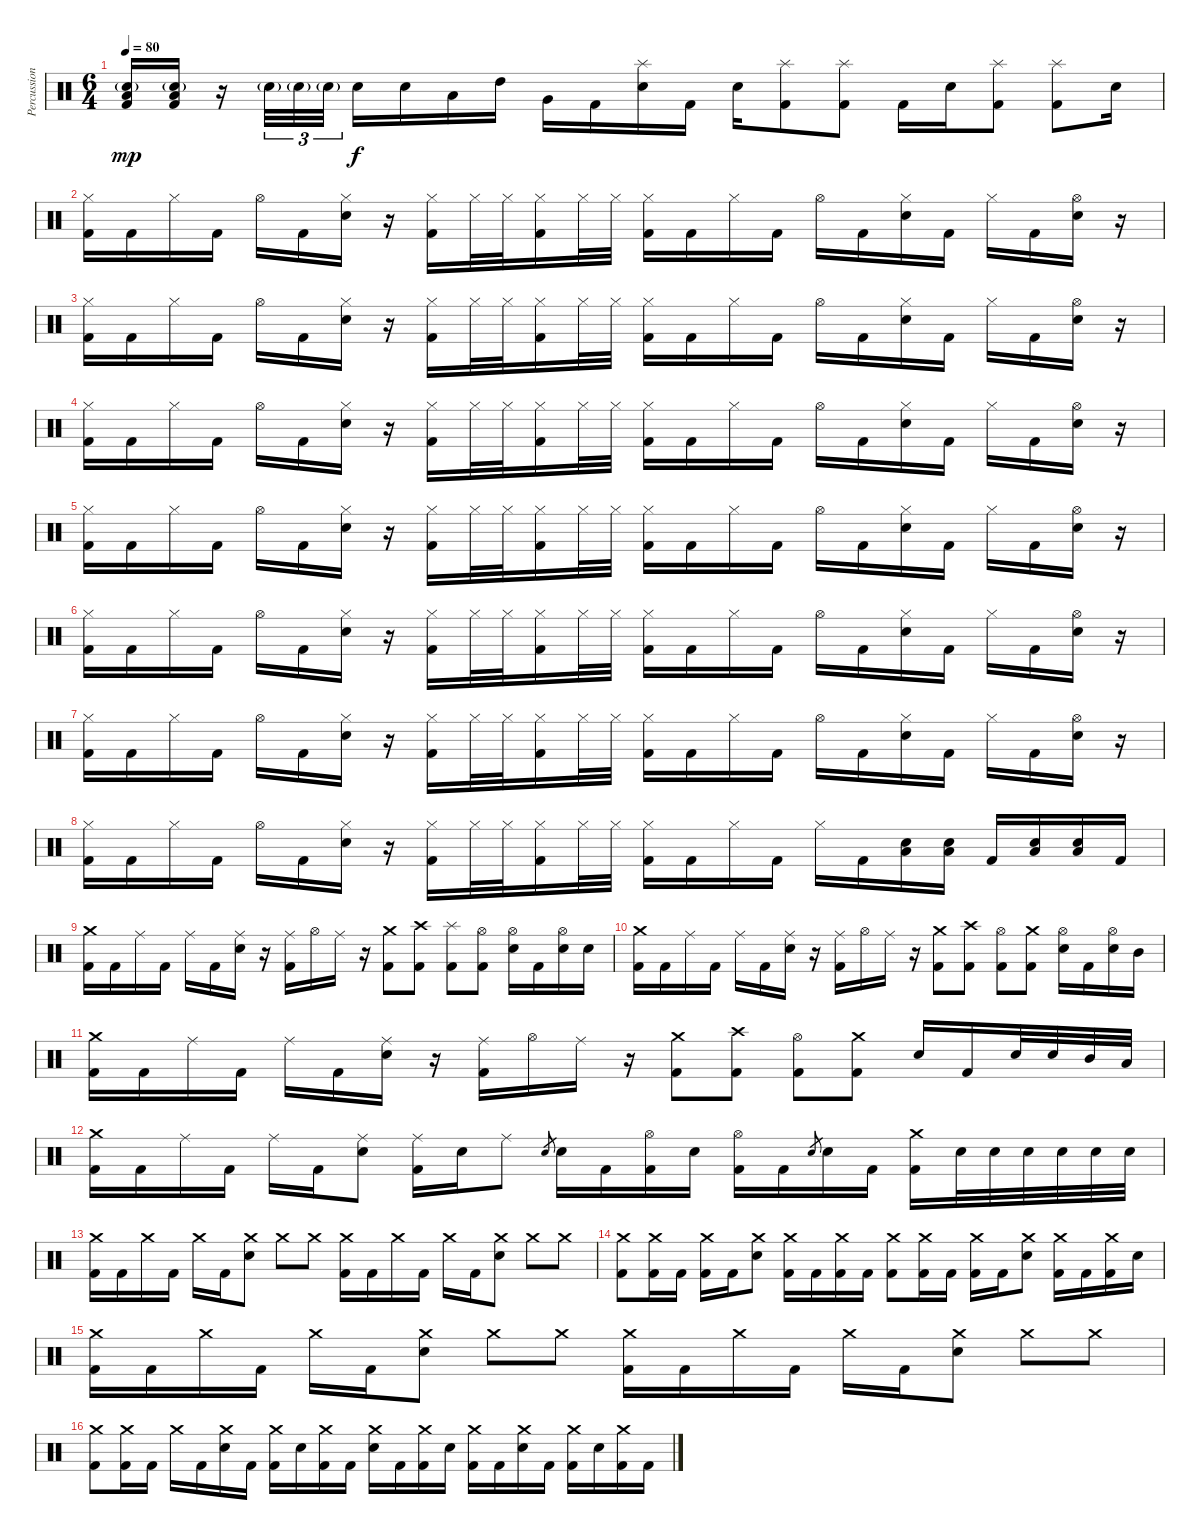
\track ("Percussion" "Percussion") {instrument percussion}
\staff {score}
\articulation defaults
\ts (6 4)
\tempo 80
\clef neutral
\ks c
("Electric Snare (hit)"{g} "Low Floor Tom (hit)" "Kick (hit) 2").16{dy mp} ("Electric Snare (hit)"{g} "Low Floor Tom (hit)" "Kick (hit) 2").16 r.16 "Electric Snare (hit)"{g}.32{tu (3 2)} "Electric Snare (hit)"{g}.32{tu (3 2)} "Electric Snare (hit)"{g}.32{tu (3 2)} "Electric Snare (hit)".16{dy f} "Electric Snare (hit)".16 "Low Tom (hit)".16 "High Tom (hit)".16 "Very Low Tom (hit)".16 "Kick (hit) 2".16 ("Splash (hit)" "Electric Snare (hit)").16 "Kick (hit) 2".16 "Electric Snare (hit)".16 ("Splash (hit)" "Kick (hit) 2").8 ("Splash (hit)" "Kick (hit) 2").8 "Kick (hit) 2".16 "Electric Snare (hit)".16 ("Splash (hit)" "Kick (hit) 2").8 ("Splash (hit)" "Kick (hit) 2").8 "Electric Snare (hit)".16 |
("Hi-Hat (closed)" "Kick (hit) 2").16 "Kick (hit) 2".16 "Hi-Hat (closed)".16 "Kick (hit) 2".16 "Hi-Hat (open)".16 "Kick (hit) 2".16 ("Hi-Hat (closed)" "Electric Snare (hit)").16 r.16 ("Hi-Hat (closed)" "Kick (hit) 2").16 "Hi-Hat (closed)".32 "Hi-Hat (closed)".32 ("Hi-Hat (closed)" "Kick (hit) 2").16 "Hi-Hat (closed)".32 "Hi-Hat (closed)".32 ("Hi-Hat (closed)" "Kick (hit) 2").16 "Kick (hit) 2".16 "Hi-Hat (closed)".16 "Kick (hit) 2".16 "Hi-Hat (open)".16 "Kick (hit) 2".16 ("Hi-Hat (closed)" "Electric Snare (hit)").16 "Kick (hit) 2".16 "Hi-Hat (closed)".16 "Kick (hit) 2".16 ("Hi-Hat (open)" "Electric Snare (hit)").16 r.16 |
("Hi-Hat (closed)" "Kick (hit) 2").16 "Kick (hit) 2".16 "Hi-Hat (closed)".16 "Kick (hit) 2".16 "Hi-Hat (open)".16 "Kick (hit) 2".16 ("Hi-Hat (closed)" "Electric Snare (hit)").16 r.16 ("Hi-Hat (closed)" "Kick (hit) 2").16 "Hi-Hat (closed)".32 "Hi-Hat (closed)".32 ("Hi-Hat (closed)" "Kick (hit) 2").16 "Hi-Hat (closed)".32 "Hi-Hat (closed)".32 ("Hi-Hat (closed)" "Kick (hit) 2").16 "Kick (hit) 2".16 "Hi-Hat (closed)".16 "Kick (hit) 2".16 "Hi-Hat (open)".16 "Kick (hit) 2".16 ("Hi-Hat (closed)" "Electric Snare (hit)").16 "Kick (hit) 2".16 "Hi-Hat (closed)".16 "Kick (hit) 2".16 ("Hi-Hat (open)" "Electric Snare (hit)").16 r.16 |
("Hi-Hat (closed)" "Kick (hit) 2").16 "Kick (hit) 2".16 "Hi-Hat (closed)".16 "Kick (hit) 2".16 "Hi-Hat (open)".16 "Kick (hit) 2".16 ("Hi-Hat (closed)" "Electric Snare (hit)").16 r.16 ("Hi-Hat (closed)" "Kick (hit) 2").16 "Hi-Hat (closed)".32 "Hi-Hat (closed)".32 ("Hi-Hat (closed)" "Kick (hit) 2").16 "Hi-Hat (closed)".32 "Hi-Hat (closed)".32 ("Hi-Hat (closed)" "Kick (hit) 2").16 "Kick (hit) 2".16 "Hi-Hat (closed)".16 "Kick (hit) 2".16 "Hi-Hat (open)".16 "Kick (hit) 2".16 ("Hi-Hat (closed)" "Electric Snare (hit)").16 "Kick (hit) 2".16 "Hi-Hat (closed)".16 "Kick (hit) 2".16 ("Hi-Hat (open)" "Electric Snare (hit)").16 r.16 |
("Hi-Hat (closed)" "Kick (hit) 2").16 "Kick (hit) 2".16 "Hi-Hat (closed)".16 "Kick (hit) 2".16 "Hi-Hat (open)".16 "Kick (hit) 2".16 ("Hi-Hat (closed)" "Electric Snare (hit)").16 r.16 ("Hi-Hat (closed)" "Kick (hit) 2").16 "Hi-Hat (closed)".32 "Hi-Hat (closed)".32 ("Hi-Hat (closed)" "Kick (hit) 2").16 "Hi-Hat (closed)".32 "Hi-Hat (closed)".32 ("Hi-Hat (closed)" "Kick (hit) 2").16 "Kick (hit) 2".16 "Hi-Hat (closed)".16 "Kick (hit) 2".16 "Hi-Hat (open)".16 "Kick (hit) 2".16 ("Hi-Hat (closed)" "Electric Snare (hit)").16 "Kick (hit) 2".16 "Hi-Hat (closed)".16 "Kick (hit) 2".16 ("Hi-Hat (open)" "Electric Snare (hit)").16 r.16 |
("Hi-Hat (closed)" "Kick (hit) 2").16 "Kick (hit) 2".16 "Hi-Hat (closed)".16 "Kick (hit) 2".16 "Hi-Hat (open)".16 "Kick (hit) 2".16 ("Hi-Hat (closed)" "Electric Snare (hit)").16 r.16 ("Hi-Hat (closed)" "Kick (hit) 2").16 "Hi-Hat (closed)".32 "Hi-Hat (closed)".32 ("Hi-Hat (closed)" "Kick (hit) 2").16 "Hi-Hat (closed)".32 "Hi-Hat (closed)".32 ("Hi-Hat (closed)" "Kick (hit) 2").16 "Kick (hit) 2".16 "Hi-Hat (closed)".16 "Kick (hit) 2".16 "Hi-Hat (open)".16 "Kick (hit) 2".16 ("Hi-Hat (closed)" "Electric Snare (hit)").16 "Kick (hit) 2".16 "Hi-Hat (closed)".16 "Kick (hit) 2".16 ("Hi-Hat (open)" "Electric Snare (hit)").16 r.16 |
("Hi-Hat (closed)" "Kick (hit) 2").16 "Kick (hit) 2".16 "Hi-Hat (closed)".16 "Kick (hit) 2".16 "Hi-Hat (open)".16 "Kick (hit) 2".16 ("Hi-Hat (closed)" "Electric Snare (hit)").16 r.16 ("Hi-Hat (closed)" "Kick (hit) 2").16 "Hi-Hat (closed)".32 "Hi-Hat (closed)".32 ("Hi-Hat (closed)" "Kick (hit) 2").16 "Hi-Hat (closed)".32 "Hi-Hat (closed)".32 ("Hi-Hat (closed)" "Kick (hit) 2").16 "Kick (hit) 2".16 "Hi-Hat (closed)".16 "Kick (hit) 2".16 "Hi-Hat (open)".16 "Kick (hit) 2".16 ("Hi-Hat (closed)" "Electric Snare (hit)").16 "Kick (hit) 2".16 "Hi-Hat (closed)".16 "Kick (hit) 2".16 ("Hi-Hat (open)" "Electric Snare (hit)").16 r.16 |
("Hi-Hat (closed)" "Kick (hit) 2").16 "Kick (hit) 2".16 "Hi-Hat (closed)".16 "Kick (hit) 2".16 "Hi-Hat (open)".16 "Kick (hit) 2".16 ("Hi-Hat (closed)" "Electric Snare (hit)").16 r.16 ("Hi-Hat (closed)" "Kick (hit) 2").16 "Hi-Hat (closed)".32 "Hi-Hat (closed)".32 ("Hi-Hat (closed)" "Kick (hit) 2").16 "Hi-Hat (closed)".32 "Hi-Hat (closed)".32 ("Hi-Hat (closed)" "Kick (hit) 2").16 "Kick (hit) 2".16 "Hi-Hat (closed)".16 "Kick (hit) 2".16 "Hi-Hat (closed)".16 "Kick (hit) 2".16 ("Low Floor Tom (hit)" "Electric Snare (hit)").16 ("Low Floor Tom (hit)" "Electric Snare (hit)").16 "Kick (hit) 2".16 ("Low Floor Tom (hit)" "Electric Snare (hit)").16 ("Low Floor Tom (hit)" "Electric Snare (hit)").16 "Kick (hit) 2".16 |
("Crash medium (hit)" "Kick (hit) 2").16 "Kick (hit) 2".16 "Ride (middle)".16 "Kick (hit) 2".16 "Ride (middle)".16 "Kick (hit) 2".16 ("Ride (middle)" "Electric Snare (hit)").16 r.16 ("Ride (middle)" "Kick (hit) 2").16 "Hi-Hat (open)".16 "Ride (middle)".16 r.16 ("Crash medium (hit)" "Kick (hit) 2").8 ("Crash high (hit)" "Kick (hit) 2").8 ("Splash (hit)" "Kick (hit) 2").8 ("Hi-Hat (open)" "Kick (hit) 2").8 ("Hi-Hat (open)" "Electric Snare (hit)").16 "Kick (hit) 2".16 ("Hi-Hat (open)" "Electric Snare (hit)").16 "Electric Snare (hit)".16 |
("Crash medium (hit)" "Kick (hit) 2").16 "Kick (hit) 2".16 "Ride (middle)".16 "Kick (hit) 2".16 "Ride (middle)".16 "Kick (hit) 2".16 ("Ride (middle)" "Electric Snare (hit)").16 r.16 ("Ride (middle)" "Kick (hit) 2").16 "Hi-Hat (open)".16 "Ride (middle)".16 r.16 ("Crash medium (hit)" "Kick (hit) 2").8 ("Crash high (hit)" "Kick (hit) 2").8 ("Hi-Hat (open)" "Kick (hit) 2").8 ("Crash medium (hit)" "Kick (hit) 2").8 ("Hi-Hat (open)" "Electric Snare (hit)").16 "Kick (hit) 2".16 ("Hi-Hat (open)" "Electric Snare (hit)").16 "Mid Tom (hit)".16 |
("Crash medium (hit)" "Kick (hit) 2").16 "Kick (hit) 2".16 "Ride (middle)".16 "Kick (hit) 2".16 "Ride (middle)".16 "Kick (hit) 2".16 ("Ride (middle)" "Electric Snare (hit)").16 r.16 ("Ride (middle)" "Kick (hit) 2").16 "Hi-Hat (open)".16 "Ride (middle)".16 r.16 ("Crash medium (hit)" "Kick (hit) 2").8 ("Crash high (hit)" "Kick (hit) 2").8 ("Hi-Hat (open)" "Kick (hit) 2").8 ("Crash medium (hit)" "Kick (hit) 2").8 "Electric Snare (hit)".16 "Kick (hit) 2".16 "Electric Snare (hit)".32 "Electric Snare (hit)".32 "Mid Tom (hit)".32 "Low Tom (hit)".32 |
("Crash medium (hit)" "Kick (hit) 2").16 "Kick (hit) 2".16 "Ride (middle)".16 "Kick (hit) 2".16 "Ride (middle)".16 "Kick (hit) 2".16 ("Ride (middle)" "Electric Snare (hit)").8 ("Ride (middle)" "Kick (hit) 2").16 "Electric Snare (hit)".16 "Ride (middle)".8 "Electric Snare (hit)".8{gr} "Electric Snare (hit)".16 "Kick (hit) 2".16 ("Hi-Hat (open)" "Kick (hit) 2").16 "Electric Snare (hit)".16 ("Hi-Hat (open)" "Kick (hit) 2").16 "Kick (hit) 2".16 "Electric Snare (hit)".8{gr} "Electric Snare (hit)".16 "Kick (hit) 2".16 ("Crash medium (hit)" "Kick (hit) 2").16 "Electric Snare (hit)".32 "Electric Snare (hit)".32 "Electric Snare (hit)".32 "Electric Snare (hit)".32 "Electric Snare (hit)".32 "Electric Snare (hit)".32 |
("Crash medium (hit)" "Kick (hit) 2").16 "Kick (hit) 2".16 "Crash medium (hit)".16 "Kick (hit) 2".16 "Crash medium (hit)".16 "Kick (hit) 2".16 ("Crash medium (hit)" "Electric Snare (hit)").8 "Crash medium (hit)".8 "Crash medium (hit)".8 ("Crash medium (hit)" "Kick (hit) 2").16 "Kick (hit) 2".16 "Crash medium (hit)".16 "Kick (hit) 2".16 "Crash medium (hit)".16 "Kick (hit) 2".16 ("Crash medium (hit)" "Electric Snare (hit)").8 "Crash medium (hit)".8 "Crash medium (hit)".8 |
("Crash medium (hit)" "Kick (hit) 2").8 ("Crash medium (hit)" "Kick (hit) 2").16 "Kick (hit) 2".16 ("Crash medium (hit)" "Kick (hit) 2").16 "Kick (hit) 2".16 ("Crash medium (hit)" "Electric Snare (hit)").8 ("Crash medium (hit)" "Kick (hit) 2").16 "Kick (hit) 2".16 ("Crash medium (hit)" "Kick (hit) 2").16 "Kick (hit) 2".16 ("Crash medium (hit)" "Kick (hit) 2").8 ("Crash medium (hit)" "Kick (hit) 2").16 "Kick (hit) 2".16 ("Crash medium (hit)" "Kick (hit) 2").16 "Kick (hit) 2".16 ("Crash medium (hit)" "Electric Snare (hit)").8 ("Crash medium (hit)" "Kick (hit) 2").16 "Kick (hit) 2".16 ("Crash medium (hit)" "Kick (hit) 2").16 "Electric Snare (hit)".16 |
("Crash medium (hit)" "Kick (hit) 2").16 "Kick (hit) 2".16 "Crash medium (hit)".16 "Kick (hit) 2".16 "Crash medium (hit)".16 "Kick (hit) 2".16 ("Crash medium (hit)" "Electric Snare (hit)").8 "Crash medium (hit)".8 "Crash medium (hit)".8 ("Crash medium (hit)" "Kick (hit) 2").16 "Kick (hit) 2".16 "Crash medium (hit)".16 "Kick (hit) 2".16 "Crash medium (hit)".16 "Kick (hit) 2".16 ("Crash medium (hit)" "Electric Snare (hit)").8 "Crash medium (hit)".8 "Crash medium (hit)".8 |
("Crash medium (hit)" "Kick (hit) 2").8 ("Crash medium (hit)" "Kick (hit) 2").16 "Kick (hit) 2".16 "Crash medium (hit)".16 "Kick (hit) 2".16 ("Crash medium (hit)" "Electric Snare (hit)").16 "Kick (hit) 2".16 ("Crash medium (hit)" "Kick (hit) 2").16 "Electric Snare (hit)".16 ("Crash medium (hit)" "Kick (hit) 2").16 "Kick (hit) 2".16 ("Crash medium (hit)" "Electric Snare (hit)").16 "Kick (hit) 2".16 ("Crash medium (hit)" "Kick (hit) 2").16 "Electric Snare (hit)".16 ("Crash medium (hit)" "Kick (hit) 2").16 "Kick (hit) 2".16 ("Crash medium (hit)" "Electric Snare (hit)").16 "Kick (hit) 2".16 ("Crash medium (hit)" "Kick (hit) 2").16 "Electric Snare (hit)".16 ("Crash medium (hit)" "Kick (hit) 2").16 "Kick (hit) 2".16
